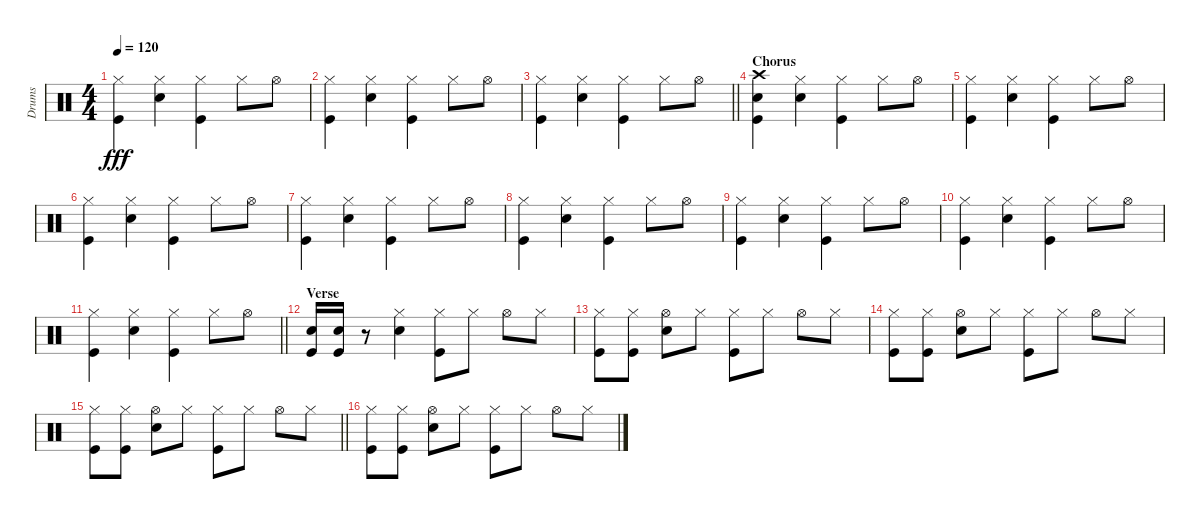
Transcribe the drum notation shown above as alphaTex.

\track ("Drums" "Drums") {instrument percussion}
\staff {score}
\articulation defaults
\ts (4 4)
\tempo 120
\clef neutral
\ks c
("Hi-Hat (closed)" "Kick (hit)").4{dy fff} ("Hi-Hat (closed)" "Snare (hit) 2").4 ("Hi-Hat (closed)" "Kick (hit)").4 "Hi-Hat (closed)".8 "Hi-Hat (open)".8 |
("Hi-Hat (closed)" "Kick (hit)").4 ("Hi-Hat (closed)" "Snare (hit) 2").4 ("Hi-Hat (closed)" "Kick (hit)").4 "Hi-Hat (closed)".8 "Hi-Hat (open)".8 |
\barLineRight lightlight
("Hi-Hat (closed)" "Kick (hit)").4 ("Hi-Hat (closed)" "Snare (hit) 2").4 ("Hi-Hat (closed)" "Kick (hit)").4 "Hi-Hat (closed)".8 "Hi-Hat (open)".8 |
\section ("" "Chorus")
("Crash high (hit)" "Snare (hit) 2" "Kick (hit)").4 ("Hi-Hat (closed)" "Snare (hit) 2").4 ("Hi-Hat (closed)" "Kick (hit)").4 "Hi-Hat (closed)".8 "Hi-Hat (open)".8 |
("Hi-Hat (closed)" "Kick (hit)").4 ("Hi-Hat (closed)" "Snare (hit) 2").4 ("Hi-Hat (closed)" "Kick (hit)").4 "Hi-Hat (closed)".8 "Hi-Hat (open)".8 |
("Hi-Hat (closed)" "Kick (hit)").4 ("Hi-Hat (closed)" "Snare (hit) 2").4 ("Hi-Hat (closed)" "Kick (hit)").4 "Hi-Hat (closed)".8 "Hi-Hat (open)".8 |
("Hi-Hat (closed)" "Kick (hit)").4 ("Hi-Hat (closed)" "Snare (hit) 2").4 ("Hi-Hat (closed)" "Kick (hit)").4 "Hi-Hat (closed)".8 "Hi-Hat (open)".8 |
("Hi-Hat (closed)" "Kick (hit)").4 ("Hi-Hat (closed)" "Snare (hit) 2").4 ("Hi-Hat (closed)" "Kick (hit)").4 "Hi-Hat (closed)".8 "Hi-Hat (open)".8 |
("Hi-Hat (closed)" "Kick (hit)").4 ("Hi-Hat (closed)" "Snare (hit) 2").4 ("Hi-Hat (closed)" "Kick (hit)").4 "Hi-Hat (closed)".8 "Hi-Hat (open)".8 |
("Hi-Hat (closed)" "Kick (hit)").4 ("Hi-Hat (closed)" "Snare (hit) 2").4 ("Hi-Hat (closed)" "Kick (hit)").4 "Hi-Hat (closed)".8 "Hi-Hat (open)".8 |
\barLineRight lightlight
("Hi-Hat (closed)" "Kick (hit)").4 ("Hi-Hat (closed)" "Snare (hit) 2").4 ("Hi-Hat (closed)" "Kick (hit)").4 "Hi-Hat (closed)".8 "Hi-Hat (open)".8 |
\section ("" "Verse")
("Snare (hit) 2" "Kick (hit)").16 ("Snare (hit) 2" "Kick (hit)").16 r.8 ("Hi-Hat (closed)" "Snare (hit) 2").4 ("Hi-Hat (closed)" "Kick (hit)").8 "Hi-Hat (closed)".8 "Hi-Hat (open)".8 "Hi-Hat (closed)".8 |
("Hi-Hat (closed)" "Kick (hit)").8 ("Hi-Hat (closed)" "Kick (hit)").8 ("Hi-Hat (open)" "Snare (hit) 2").8 "Hi-Hat (closed)".8 ("Hi-Hat (closed)" "Kick (hit)").8 "Hi-Hat (closed)".8 "Hi-Hat (open)".8 "Hi-Hat (closed)".8 |
("Hi-Hat (closed)" "Kick (hit)").8 ("Hi-Hat (closed)" "Kick (hit)").8 ("Hi-Hat (open)" "Snare (hit) 2").8 "Hi-Hat (closed)".8 ("Hi-Hat (closed)" "Kick (hit)").8 "Hi-Hat (closed)".8 "Hi-Hat (open)".8 "Hi-Hat (closed)".8 |
\barLineRight lightlight
("Hi-Hat (closed)" "Kick (hit)").8 ("Hi-Hat (closed)" "Kick (hit)").8 ("Hi-Hat (open)" "Snare (hit) 2").8 "Hi-Hat (closed)".8 ("Hi-Hat (closed)" "Kick (hit)").8 "Hi-Hat (closed)".8 "Hi-Hat (open)".8 "Hi-Hat (closed)".8 |
("Hi-Hat (closed)" "Kick (hit)").8 ("Hi-Hat (closed)" "Kick (hit)").8 ("Hi-Hat (open)" "Snare (hit) 2").8 "Hi-Hat (closed)".8 ("Hi-Hat (closed)" "Kick (hit)").8 "Hi-Hat (closed)".8 "Hi-Hat (open)".8 "Hi-Hat (closed)".8
